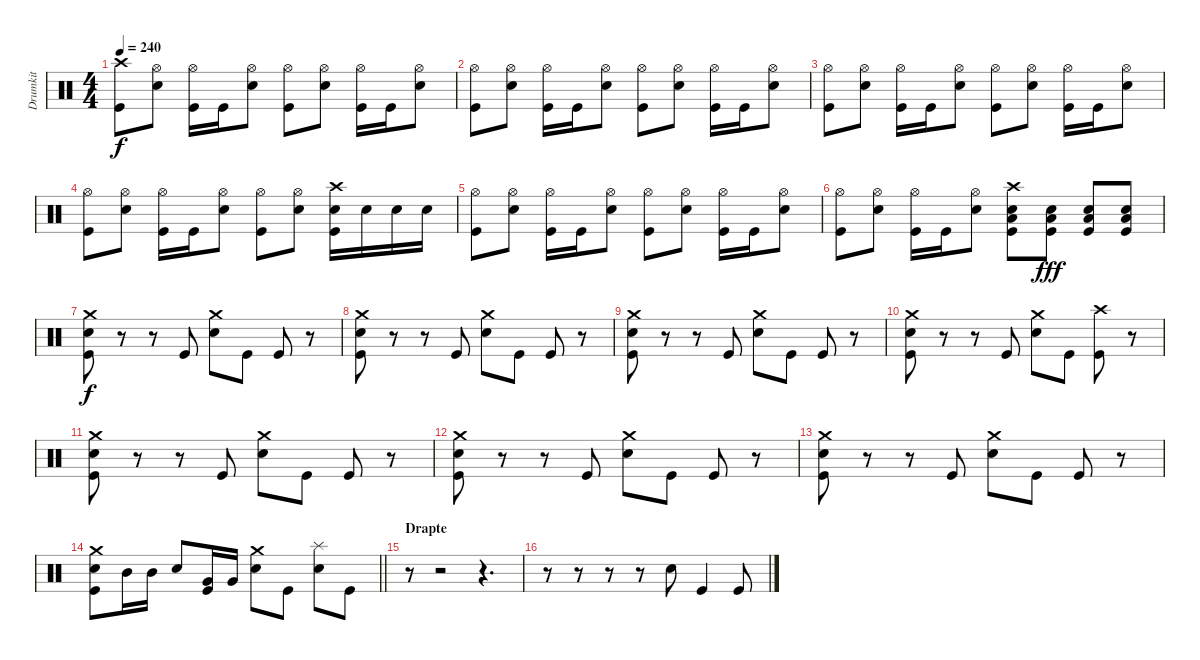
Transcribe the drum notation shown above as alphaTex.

\track ("Drumkit" "Drumkit") {instrument percussion}
\staff {score}
\articulation defaults
\ts (4 4)
\tempo 240
\clef neutral
\ks c
("Crash high (hit)" "Kick (hit)").8{dy f} ("Hi-Hat (open)" "Snare (hit) 2").8 ("Hi-Hat (open)" "Kick (hit)").16 "Kick (hit)".16 ("Hi-Hat (open)" "Snare (hit) 2").8 ("Hi-Hat (open)" "Kick (hit)").8 ("Hi-Hat (open)" "Snare (hit) 2").8 ("Hi-Hat (open)" "Kick (hit)").16 "Kick (hit)".16 ("Hi-Hat (open)" "Snare (hit) 2").8 |
("Hi-Hat (open)" "Kick (hit)").8 ("Hi-Hat (open)" "Snare (hit) 2").8 ("Hi-Hat (open)" "Kick (hit)").16 "Kick (hit)".16 ("Hi-Hat (open)" "Snare (hit) 2").8 ("Hi-Hat (open)" "Kick (hit)").8 ("Hi-Hat (open)" "Snare (hit) 2").8 ("Hi-Hat (open)" "Kick (hit)").16 "Kick (hit)".16 ("Hi-Hat (open)" "Snare (hit) 2").8 |
("Hi-Hat (open)" "Kick (hit)").8 ("Hi-Hat (open)" "Snare (hit) 2").8 ("Hi-Hat (open)" "Kick (hit)").16 "Kick (hit)".16 ("Hi-Hat (open)" "Snare (hit) 2").8 ("Hi-Hat (open)" "Kick (hit)").8 ("Hi-Hat (open)" "Snare (hit) 2").8 ("Hi-Hat (open)" "Kick (hit)").16 "Kick (hit)".16 ("Hi-Hat (open)" "Snare (hit) 2").8 |
("Hi-Hat (open)" "Kick (hit)").8 ("Hi-Hat (open)" "Snare (hit) 2").8 ("Hi-Hat (open)" "Kick (hit)").16 "Kick (hit)".16 ("Hi-Hat (open)" "Snare (hit) 2").8 ("Hi-Hat (open)" "Kick (hit)").8 ("Hi-Hat (open)" "Snare (hit) 2").8 ("Crash high (hit)" "Snare (hit) 2" "Kick (hit)").16 "Snare (hit) 2".16 "Snare (hit) 2".16 "Snare (hit) 2".16 |
("Hi-Hat (open)" "Kick (hit)").8 ("Hi-Hat (open)" "Snare (hit) 2").8 ("Hi-Hat (open)" "Kick (hit)").16 "Kick (hit)".16 ("Hi-Hat (open)" "Snare (hit) 2").8 ("Hi-Hat (open)" "Kick (hit)").8 ("Hi-Hat (open)" "Snare (hit) 2").8 ("Hi-Hat (open)" "Kick (hit)").16 "Kick (hit)".16 ("Hi-Hat (open)" "Snare (hit) 2").8 |
("Hi-Hat (open)" "Kick (hit)").8 ("Hi-Hat (open)" "Snare (hit) 2").8 ("Hi-Hat (open)" "Kick (hit)").16 "Kick (hit)".16 ("Hi-Hat (open)" "Snare (hit) 2").8 ("Crash high (hit)" "Low Floor Tom (hit)" "Snare (hit) 2" "Kick (hit)").8 ("Low Floor Tom (hit)" "Snare (hit) 2" "Kick (hit)").8{dy fff} ("Low Floor Tom (hit)" "Snare (hit) 2" "Kick (hit)").8 ("Low Floor Tom (hit)" "Snare (hit) 2" "Kick (hit)").8 |
("Crash medium (hit)" "Snare (hit) 2" "Kick (hit)").8{dy f} r.8 r.8 "Kick (hit)".8 ("Crash medium (hit)" "Snare (hit) 2").8 "Kick (hit)".8 "Kick (hit)".8 r.8 |
("Crash medium (hit)" "Snare (hit) 2" "Kick (hit)").8 r.8 r.8 "Kick (hit)".8 ("Crash medium (hit)" "Snare (hit) 2").8 "Kick (hit)".8 "Kick (hit)".8 r.8 |
("Crash medium (hit)" "Snare (hit) 2" "Kick (hit)").8 r.8 r.8 "Kick (hit)".8 ("Crash medium (hit)" "Snare (hit) 2").8 "Kick (hit)".8 "Kick (hit)".8 r.8 |
("Crash medium (hit)" "Snare (hit) 2" "Kick (hit)").8 r.8 r.8 "Kick (hit)".8 ("Crash medium (hit)" "Snare (hit) 2").8 "Kick (hit)".8 ("Crash high (hit)" "Kick (hit)").8 r.8 |
("Crash medium (hit)" "Snare (hit) 2" "Kick (hit)").8 r.8 r.8 "Kick (hit)".8 ("Crash medium (hit)" "Snare (hit) 2").8 "Kick (hit)".8 "Kick (hit)".8 r.8 |
("Crash medium (hit)" "Snare (hit) 2" "Kick (hit)").8 r.8 r.8 "Kick (hit)".8 ("Crash medium (hit)" "Snare (hit) 2").8 "Kick (hit)".8 "Kick (hit)".8 r.8 |
("Crash medium (hit)" "Snare (hit) 2" "Kick (hit)").8 r.8 r.8 "Kick (hit)".8 ("Crash medium (hit)" "Snare (hit) 2").8 "Kick (hit)".8 "Kick (hit)".8 r.8 |
\barLineRight lightlight
("Crash medium (hit)" "Snare (hit) 2" "Kick (hit)").8 "Mid Tom (hit)".16 "Mid Tom (hit)".16 "Snare (hit) 2".8 ("Very Low Tom (hit)" "Kick (hit)").16 "Very Low Tom (hit)".16 ("Crash medium (hit)" "Snare (hit) 2").8 "Kick (hit)".8 ("Splash (hit)" "Snare (hit) 2").8 "Kick (hit)".8 |
\section ("" "Drapte")
r.8 r.2 r.4{d} |
r.8 r.8 r.8 r.8 "Snare (hit) 2".8 "Kick (hit)".4 "Kick (hit)".8
